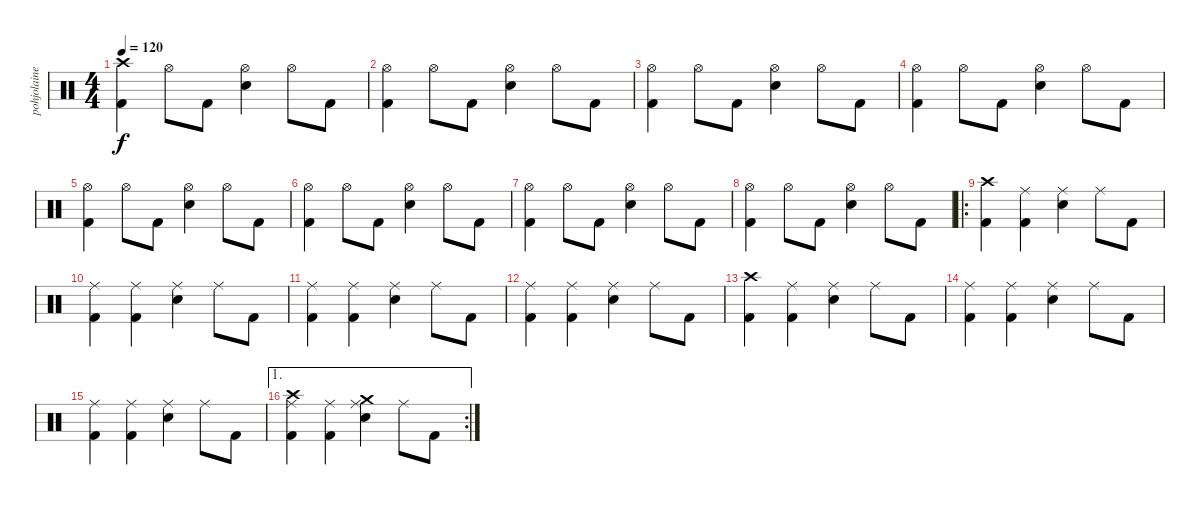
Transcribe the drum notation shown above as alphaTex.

\track ("pohjolainen" "pohjolaine") {instrument percussion}
\staff {score}
\articulation defaults
\ts (4 4)
\tempo 120
\clef neutral
\ks c
("Kick (hit) 2" "Crash high (hit)").4{dy f} "Hi-Hat (open)".8 "Kick (hit) 2".8 ("Hi-Hat (open)" "Snare (hit) 2").4 "Hi-Hat (open)".8 "Kick (hit) 2".8 |
("Kick (hit) 2" "Hi-Hat (open)").4 "Hi-Hat (open)".8 "Kick (hit) 2".8 ("Hi-Hat (open)" "Snare (hit) 2").4 "Hi-Hat (open)".8 "Kick (hit) 2".8 |
("Kick (hit) 2" "Hi-Hat (open)").4 "Hi-Hat (open)".8 "Kick (hit) 2".8 ("Hi-Hat (open)" "Snare (hit) 2").4 "Hi-Hat (open)".8 "Kick (hit) 2".8 |
("Kick (hit) 2" "Hi-Hat (open)").4 "Hi-Hat (open)".8 "Kick (hit) 2".8 ("Hi-Hat (open)" "Snare (hit) 2").4 "Hi-Hat (open)".8 "Kick (hit) 2".8 |
("Kick (hit) 2" "Hi-Hat (open)").4 "Hi-Hat (open)".8 "Kick (hit) 2".8 ("Hi-Hat (open)" "Snare (hit) 2").4 "Hi-Hat (open)".8 "Kick (hit) 2".8 |
("Kick (hit) 2" "Hi-Hat (open)").4 "Hi-Hat (open)".8 "Kick (hit) 2".8 ("Hi-Hat (open)" "Snare (hit) 2").4 "Hi-Hat (open)".8 "Kick (hit) 2".8 |
("Kick (hit) 2" "Hi-Hat (open)").4 "Hi-Hat (open)".8 "Kick (hit) 2".8 ("Hi-Hat (open)" "Snare (hit) 2").4 "Hi-Hat (open)".8 "Kick (hit) 2".8 |
("Kick (hit) 2" "Hi-Hat (open)").4 "Hi-Hat (open)".8 "Kick (hit) 2".8 ("Hi-Hat (open)" "Snare (hit) 2").4 "Hi-Hat (open)".8 "Kick (hit) 2".8 |
\ro
("Kick (hit) 2" "Crash high (hit)").4 ("Kick (hit) 2" "Ride (middle)").4 ("Ride (middle)" "Snare (hit) 2").4 "Ride (middle)".8 "Kick (hit) 2".8 |
("Kick (hit) 2" "Ride (middle)").4 ("Kick (hit) 2" "Ride (middle)").4 ("Ride (middle)" "Snare (hit) 2").4 "Ride (middle)".8 "Kick (hit) 2".8 |
("Kick (hit) 2" "Ride (middle)").4 ("Kick (hit) 2" "Ride (middle)").4 ("Ride (middle)" "Snare (hit) 2").4 "Ride (middle)".8 "Kick (hit) 2".8 |
("Kick (hit) 2" "Ride (middle)").4 ("Kick (hit) 2" "Ride (middle)").4 ("Ride (middle)" "Snare (hit) 2").4 "Ride (middle)".8 "Kick (hit) 2".8 |
("Kick (hit) 2" "Crash high (hit)").4 ("Kick (hit) 2" "Ride (middle)").4 ("Ride (middle)" "Snare (hit) 2").4 "Ride (middle)".8 "Kick (hit) 2".8 |
("Kick (hit) 2" "Ride (middle)").4 ("Kick (hit) 2" "Ride (middle)").4 ("Ride (middle)" "Snare (hit) 2").4 "Ride (middle)".8 "Kick (hit) 2".8 |
("Kick (hit) 2" "Ride (middle)").4 ("Kick (hit) 2" "Ride (middle)").4 ("Ride (middle)" "Snare (hit) 2").4 "Ride (middle)".8 "Kick (hit) 2".8 |
\ae 1
\rc 2
("Kick (hit) 2" "Crash high (hit)" "Ride (middle)").4 ("Kick (hit) 2" "Ride (middle)").4 ("Crash medium (hit)" "Ride (middle)" "Snare (hit) 2").4 "Ride (middle)".8 "Kick (hit) 2".8
